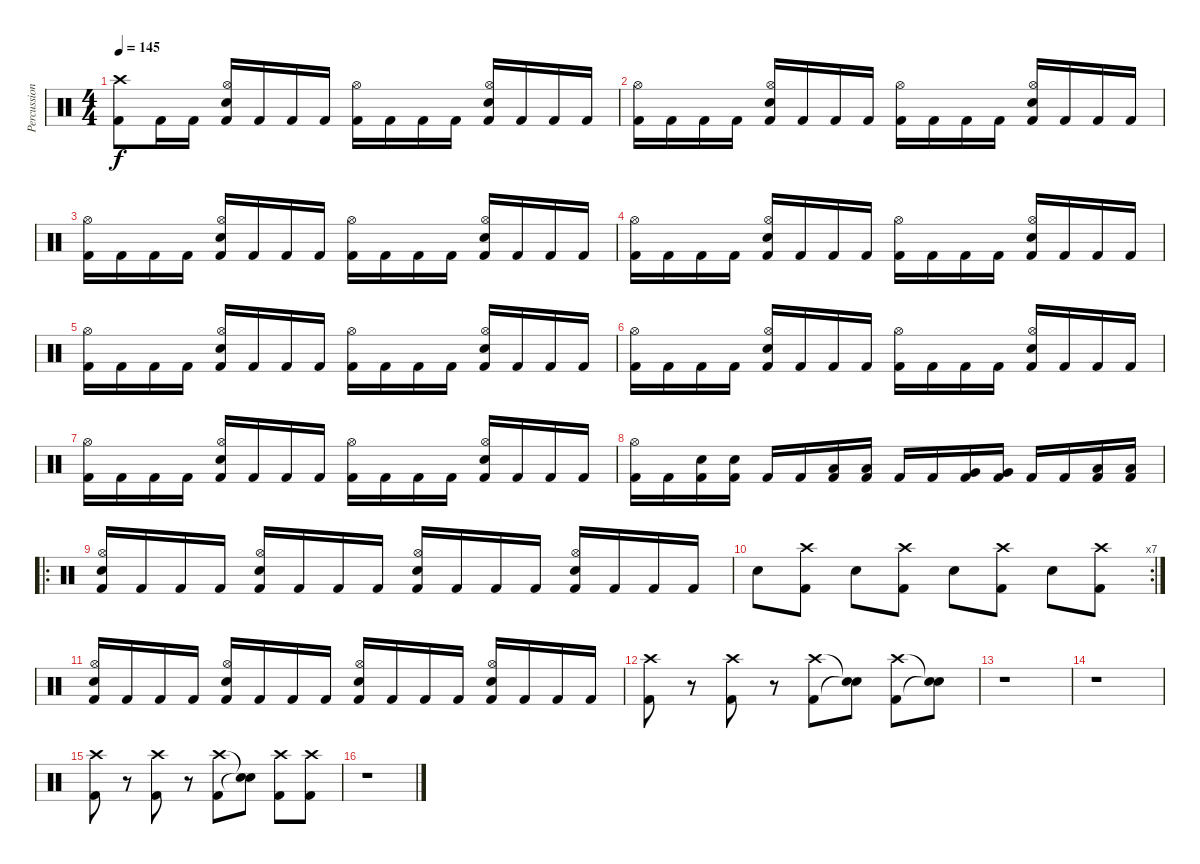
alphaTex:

\track ("Percussion" "Percussion") {instrument percussion}
\staff {score}
\articulation defaults
\ts (4 4)
\tempo 145
\clef neutral
\ks c
("Crash high (hit)" "Kick (hit) 2").8{dy f} "Kick (hit) 2".16 "Kick (hit) 2".16 ("Hi-Hat (open)" "Snare (hit) 2" "Kick (hit) 2").16 "Kick (hit) 2".16 "Kick (hit) 2".16 "Kick (hit) 2".16 ("Hi-Hat (open)" "Kick (hit) 2").16 "Kick (hit) 2".16 "Kick (hit) 2".16 "Kick (hit) 2".16 ("Hi-Hat (open)" "Snare (hit) 2" "Kick (hit) 2").16 "Kick (hit) 2".16 "Kick (hit) 2".16 "Kick (hit) 2".16 |
("Hi-Hat (open)" "Kick (hit) 2").16 "Kick (hit) 2".16 "Kick (hit) 2".16 "Kick (hit) 2".16 ("Hi-Hat (open)" "Snare (hit) 2" "Kick (hit) 2").16 "Kick (hit) 2".16 "Kick (hit) 2".16 "Kick (hit) 2".16 ("Hi-Hat (open)" "Kick (hit) 2").16 "Kick (hit) 2".16 "Kick (hit) 2".16 "Kick (hit) 2".16 ("Hi-Hat (open)" "Snare (hit) 2" "Kick (hit) 2").16 "Kick (hit) 2".16 "Kick (hit) 2".16 "Kick (hit) 2".16 |
("Hi-Hat (open)" "Kick (hit) 2").16 "Kick (hit) 2".16 "Kick (hit) 2".16 "Kick (hit) 2".16 ("Hi-Hat (open)" "Snare (hit) 2" "Kick (hit) 2").16 "Kick (hit) 2".16 "Kick (hit) 2".16 "Kick (hit) 2".16 ("Hi-Hat (open)" "Kick (hit) 2").16 "Kick (hit) 2".16 "Kick (hit) 2".16 "Kick (hit) 2".16 ("Hi-Hat (open)" "Snare (hit) 2" "Kick (hit) 2").16 "Kick (hit) 2".16 "Kick (hit) 2".16 "Kick (hit) 2".16 |
("Hi-Hat (open)" "Kick (hit) 2").16 "Kick (hit) 2".16 "Kick (hit) 2".16 "Kick (hit) 2".16 ("Hi-Hat (open)" "Snare (hit) 2" "Kick (hit) 2").16 "Kick (hit) 2".16 "Kick (hit) 2".16 "Kick (hit) 2".16 ("Hi-Hat (open)" "Kick (hit) 2").16 "Kick (hit) 2".16 "Kick (hit) 2".16 "Kick (hit) 2".16 ("Hi-Hat (open)" "Snare (hit) 2" "Kick (hit) 2").16 "Kick (hit) 2".16 "Kick (hit) 2".16 "Kick (hit) 2".16 |
("Hi-Hat (open)" "Kick (hit) 2").16 "Kick (hit) 2".16 "Kick (hit) 2".16 "Kick (hit) 2".16 ("Hi-Hat (open)" "Snare (hit) 2" "Kick (hit) 2").16 "Kick (hit) 2".16 "Kick (hit) 2".16 "Kick (hit) 2".16 ("Hi-Hat (open)" "Kick (hit) 2").16 "Kick (hit) 2".16 "Kick (hit) 2".16 "Kick (hit) 2".16 ("Hi-Hat (open)" "Snare (hit) 2" "Kick (hit) 2").16 "Kick (hit) 2".16 "Kick (hit) 2".16 "Kick (hit) 2".16 |
("Hi-Hat (open)" "Kick (hit) 2").16 "Kick (hit) 2".16 "Kick (hit) 2".16 "Kick (hit) 2".16 ("Hi-Hat (open)" "Snare (hit) 2" "Kick (hit) 2").16 "Kick (hit) 2".16 "Kick (hit) 2".16 "Kick (hit) 2".16 ("Hi-Hat (open)" "Kick (hit) 2").16 "Kick (hit) 2".16 "Kick (hit) 2".16 "Kick (hit) 2".16 ("Hi-Hat (open)" "Snare (hit) 2" "Kick (hit) 2").16 "Kick (hit) 2".16 "Kick (hit) 2".16 "Kick (hit) 2".16 |
("Hi-Hat (open)" "Kick (hit) 2").16 "Kick (hit) 2".16 "Kick (hit) 2".16 "Kick (hit) 2".16 ("Hi-Hat (open)" "Snare (hit) 2" "Kick (hit) 2").16 "Kick (hit) 2".16 "Kick (hit) 2".16 "Kick (hit) 2".16 ("Hi-Hat (open)" "Kick (hit) 2").16 "Kick (hit) 2".16 "Kick (hit) 2".16 "Kick (hit) 2".16 ("Hi-Hat (open)" "Snare (hit) 2" "Kick (hit) 2").16 "Kick (hit) 2".16 "Kick (hit) 2".16 "Kick (hit) 2".16 |
("Hi-Hat (open)" "Kick (hit) 2").16 "Kick (hit) 2".16 ("Snare (hit) 2" "Kick (hit) 2").16 ("Snare (hit) 2" "Kick (hit) 2").16 "Kick (hit) 2".16 "Kick (hit) 2".16 ("Low Tom (hit)" "Kick (hit) 2").16 ("Low Tom (hit)" "Kick (hit) 2").16 "Kick (hit) 2".16 "Kick (hit) 2".16 ("Very Low Tom (hit)" "Kick (hit) 2").16 ("Very Low Tom (hit)" "Kick (hit) 2").16 "Kick (hit) 2".16 "Kick (hit) 2".16 ("Low Floor Tom (hit)" "Kick (hit) 2").16 ("Low Floor Tom (hit)" "Kick (hit) 2").16 |
\ro
("Hi-Hat (open)" "Snare (hit) 2" "Kick (hit) 2").16 "Kick (hit) 2".16 "Kick (hit) 2".16 "Kick (hit) 2".16 ("Hi-Hat (open)" "Snare (hit) 2" "Kick (hit) 2").16 "Kick (hit) 2".16 "Kick (hit) 2".16 "Kick (hit) 2".16 ("Hi-Hat (open)" "Snare (hit) 2" "Kick (hit) 2").16 "Kick (hit) 2".16 "Kick (hit) 2".16 "Kick (hit) 2".16 ("Hi-Hat (open)" "Snare (hit) 2" "Kick (hit) 2").16 "Kick (hit) 2".16 "Kick (hit) 2".16 "Kick (hit) 2".16 |
\rc 7 "Snare (hit) 2".8
("Crash high (hit)" "Kick (hit) 2").8 "Snare (hit) 2".8 ("Crash high (hit)" "Kick (hit) 2").8 "Snare (hit) 2".8 ("Crash high (hit)" "Kick (hit) 2").8 "Snare (hit) 2".8 ("Crash high (hit)" "Kick (hit) 2").8 |
("Hi-Hat (open)" "Snare (hit) 2" "Kick (hit) 2").16 "Kick (hit) 2".16 "Kick (hit) 2".16 "Kick (hit) 2".16 ("Hi-Hat (open)" "Snare (hit) 2" "Kick (hit) 2").16 "Kick (hit) 2".16 "Kick (hit) 2".16 "Kick (hit) 2".16 ("Hi-Hat (open)" "Snare (hit) 2" "Kick (hit) 2").16 "Kick (hit) 2".16 "Kick (hit) 2".16 "Kick (hit) 2".16 ("Hi-Hat (open)" "Snare (hit) 2" "Kick (hit) 2").16 "Kick (hit) 2".16 "Kick (hit) 2".16 "Kick (hit) 2".16 |
("Crash high (hit)" "Kick (hit) 2").8 r.8 ("Crash high (hit)" "Kick (hit) 2").8 r.8 ("Crash high (hit)" "Kick (hit) 2").8 ("Snare (hit)"{t} "Snare (hit)"{t}).8 ("Crash high (hit)" "Kick (hit) 2").8 ("Snare (hit)"{t} "Snare (hit)"{t}).8 |
r.1 |
r.1 |
("Crash high (hit)" "Kick (hit) 2").8 r.8 ("Crash high (hit)" "Kick (hit) 2").8 r.8 ("Crash high (hit)" "Kick (hit) 2").8 ("Snare (hit)"{t} "Snare (hit)"{t}).8 ("Crash high (hit)" "Kick (hit) 2").8 ("Crash high (hit)" "Kick (hit) 2").8 |
r.1
